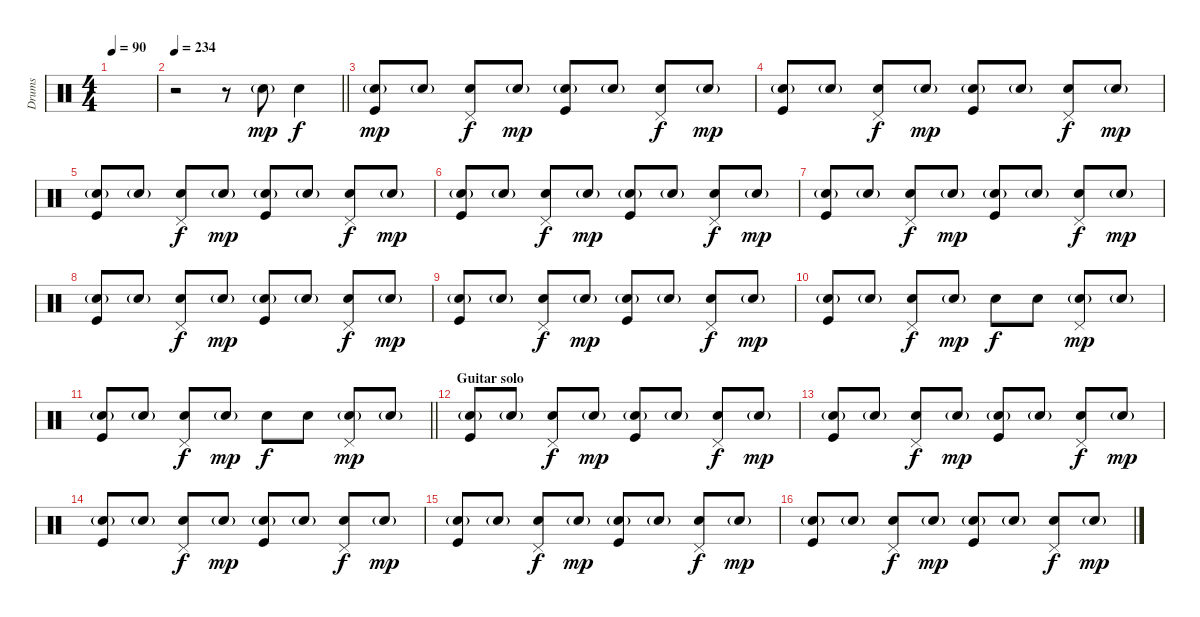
\track ("Drums" "Drums") {instrument percussion}
\staff {score}
\articulation defaults
\ts (4 4)
\tempo 90
\clef neutral
\ks c
|
\tempo 234
\barLineRight lightlight
r.2 r.8 "Snare (hit) 2"{g}.8{dy mp} "Snare (hit) 2".4{dy f} |
\section ("" "")
("Snare (hit) 2"{g} "Kick (hit)").8{dy mp} "Snare (hit) 2"{g}.8 ("Snare (hit) 2" "Pedal Hi-Hat (hit)").8{dy f} "Snare (hit) 2"{g}.8{dy mp} ("Snare (hit) 2"{g} "Kick (hit)").8 "Snare (hit) 2"{g}.8 ("Snare (hit) 2" "Pedal Hi-Hat (hit)").8{dy f} "Snare (hit) 2"{g}.8{dy mp} |
("Snare (hit) 2"{g} "Kick (hit)").8 "Snare (hit) 2"{g}.8 ("Snare (hit) 2" "Pedal Hi-Hat (hit)").8{dy f} "Snare (hit) 2"{g}.8{dy mp} ("Snare (hit) 2"{g} "Kick (hit)").8 "Snare (hit) 2"{g}.8 ("Snare (hit) 2" "Pedal Hi-Hat (hit)").8{dy f} "Snare (hit) 2"{g}.8{dy mp} |
("Snare (hit) 2"{g} "Kick (hit)").8 "Snare (hit) 2"{g}.8 ("Snare (hit) 2" "Pedal Hi-Hat (hit)").8{dy f} "Snare (hit) 2"{g}.8{dy mp} ("Snare (hit) 2"{g} "Kick (hit)").8 "Snare (hit) 2"{g}.8 ("Snare (hit) 2" "Pedal Hi-Hat (hit)").8{dy f} "Snare (hit) 2"{g}.8{dy mp} |
("Snare (hit) 2"{g} "Kick (hit)").8 "Snare (hit) 2"{g}.8 ("Snare (hit) 2" "Pedal Hi-Hat (hit)").8{dy f} "Snare (hit) 2"{g}.8{dy mp} ("Snare (hit) 2"{g} "Kick (hit)").8 "Snare (hit) 2"{g}.8 ("Snare (hit) 2" "Pedal Hi-Hat (hit)").8{dy f} "Snare (hit) 2"{g}.8{dy mp} |
("Snare (hit) 2"{g} "Kick (hit)").8 "Snare (hit) 2"{g}.8 ("Snare (hit) 2" "Pedal Hi-Hat (hit)").8{dy f} "Snare (hit) 2"{g}.8{dy mp} ("Snare (hit) 2"{g} "Kick (hit)").8 "Snare (hit) 2"{g}.8 ("Snare (hit) 2" "Pedal Hi-Hat (hit)").8{dy f} "Snare (hit) 2"{g}.8{dy mp} |
("Snare (hit) 2"{g} "Kick (hit)").8 "Snare (hit) 2"{g}.8 ("Snare (hit) 2" "Pedal Hi-Hat (hit)").8{dy f} "Snare (hit) 2"{g}.8{dy mp} ("Snare (hit) 2"{g} "Kick (hit)").8 "Snare (hit) 2"{g}.8 ("Snare (hit) 2" "Pedal Hi-Hat (hit)").8{dy f} "Snare (hit) 2"{g}.8{dy mp} |
("Snare (hit) 2"{g} "Kick (hit)").8 "Snare (hit) 2"{g}.8 ("Snare (hit) 2" "Pedal Hi-Hat (hit)").8{dy f} "Snare (hit) 2"{g}.8{dy mp} ("Snare (hit) 2"{g} "Kick (hit)").8 "Snare (hit) 2"{g}.8 ("Snare (hit) 2" "Pedal Hi-Hat (hit)").8{dy f} "Snare (hit) 2"{g}.8{dy mp} |
("Snare (hit) 2"{g} "Kick (hit)").8 "Snare (hit) 2"{g}.8 ("Snare (hit) 2" "Pedal Hi-Hat (hit)").8{dy f} "Snare (hit) 2"{g}.8{dy mp} "Snare (hit) 2".8{dy f} "Snare (hit) 2".8 ("Snare (hit) 2"{g} "Pedal Hi-Hat (hit)").8{dy mp} "Snare (hit) 2"{g}.8 |
\barLineRight lightlight
("Snare (hit) 2"{g} "Kick (hit)").8 "Snare (hit) 2"{g}.8 ("Snare (hit) 2" "Pedal Hi-Hat (hit)").8{dy f} "Snare (hit) 2"{g}.8{dy mp} "Snare (hit) 2".8{dy f} "Snare (hit) 2".8 ("Snare (hit) 2"{g} "Pedal Hi-Hat (hit)").8{dy mp} "Snare (hit) 2"{g}.8 |
\section ("" "Guitar solo")
("Snare (hit) 2"{g} "Kick (hit)").8 "Snare (hit) 2"{g}.8 ("Snare (hit) 2" "Pedal Hi-Hat (hit)").8{dy f} "Snare (hit) 2"{g}.8{dy mp} ("Snare (hit) 2"{g} "Kick (hit)").8 "Snare (hit) 2"{g}.8 ("Snare (hit) 2" "Pedal Hi-Hat (hit)").8{dy f} "Snare (hit) 2"{g}.8{dy mp} |
("Snare (hit) 2"{g} "Kick (hit)").8 "Snare (hit) 2"{g}.8 ("Snare (hit) 2" "Pedal Hi-Hat (hit)").8{dy f} "Snare (hit) 2"{g}.8{dy mp} ("Snare (hit) 2"{g} "Kick (hit)").8 "Snare (hit) 2"{g}.8 ("Snare (hit) 2" "Pedal Hi-Hat (hit)").8{dy f} "Snare (hit) 2"{g}.8{dy mp} |
("Snare (hit) 2"{g} "Kick (hit)").8 "Snare (hit) 2"{g}.8 ("Snare (hit) 2" "Pedal Hi-Hat (hit)").8{dy f} "Snare (hit) 2"{g}.8{dy mp} ("Snare (hit) 2"{g} "Kick (hit)").8 "Snare (hit) 2"{g}.8 ("Snare (hit) 2" "Pedal Hi-Hat (hit)").8{dy f} "Snare (hit) 2"{g}.8{dy mp} |
("Snare (hit) 2"{g} "Kick (hit)").8 "Snare (hit) 2"{g}.8 ("Snare (hit) 2" "Pedal Hi-Hat (hit)").8{dy f} "Snare (hit) 2"{g}.8{dy mp} ("Snare (hit) 2"{g} "Kick (hit)").8 "Snare (hit) 2"{g}.8 ("Snare (hit) 2" "Pedal Hi-Hat (hit)").8{dy f} "Snare (hit) 2"{g}.8{dy mp} |
("Snare (hit) 2"{g} "Kick (hit)").8 "Snare (hit) 2"{g}.8 ("Snare (hit) 2" "Pedal Hi-Hat (hit)").8{dy f} "Snare (hit) 2"{g}.8{dy mp} ("Snare (hit) 2"{g} "Kick (hit)").8 "Snare (hit) 2"{g}.8 ("Snare (hit) 2" "Pedal Hi-Hat (hit)").8{dy f} "Snare (hit) 2"{g}.8{dy mp}
